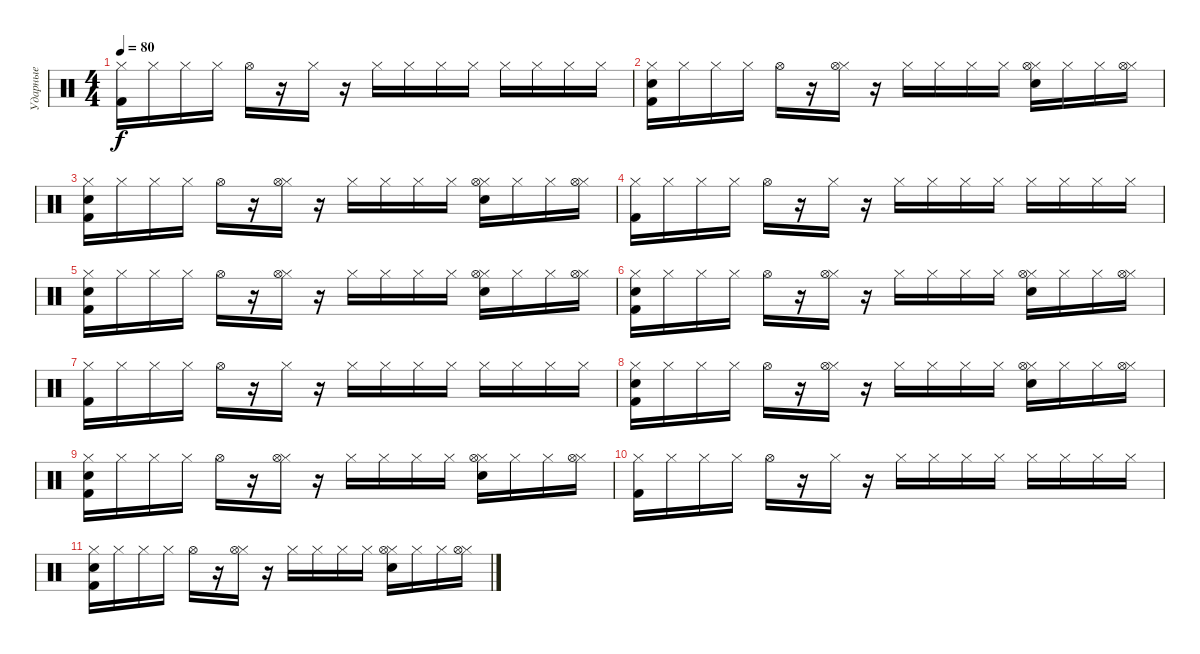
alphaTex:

\track ("Ударные" "Ударные") {instrument percussion}
\staff {score}
\articulation defaults
\ts (4 4)
\tempo 80
\clef neutral
\ks c
("Hi-Hat (closed)" "Kick (hit) 2").16{dy f} "Hi-Hat (closed)".16 "Hi-Hat (closed)".16 "Hi-Hat (closed)".16 "Hi-Hat (open)".16 r.16 "Hi-Hat (closed)".16 r.16 "Hi-Hat (closed)".16 "Hi-Hat (closed)".16 "Hi-Hat (closed)".16 "Hi-Hat (closed)".16 "Hi-Hat (closed)".16 "Hi-Hat (closed)".16 "Hi-Hat (closed)".16 "Hi-Hat (closed)".16 |
("Hi-Hat (closed)" "Kick (hit) 2" "Electric Snare (hit)").16 "Hi-Hat (closed)".16 "Hi-Hat (closed)".16 "Hi-Hat (closed)".16 "Hi-Hat (open)".16 r.16 ("Hi-Hat (closed)" "Hi-Hat (open)").16 r.16 "Hi-Hat (closed)".16 "Hi-Hat (closed)".16 "Hi-Hat (closed)".16 "Hi-Hat (closed)".16 ("Hi-Hat (closed)" "Electric Snare (hit)" "Hi-Hat (open)").16 "Hi-Hat (closed)".16 "Hi-Hat (closed)".16 ("Hi-Hat (closed)" "Hi-Hat (open)").16 |
("Hi-Hat (closed)" "Kick (hit) 2" "Electric Snare (hit)").16 "Hi-Hat (closed)".16 "Hi-Hat (closed)".16 "Hi-Hat (closed)".16 "Hi-Hat (open)".16 r.16 ("Hi-Hat (closed)" "Hi-Hat (open)").16 r.16 "Hi-Hat (closed)".16 "Hi-Hat (closed)".16 "Hi-Hat (closed)".16 "Hi-Hat (closed)".16 ("Hi-Hat (closed)" "Electric Snare (hit)" "Hi-Hat (open)").16 "Hi-Hat (closed)".16 "Hi-Hat (closed)".16 ("Hi-Hat (closed)" "Hi-Hat (open)").16 |
("Hi-Hat (closed)" "Kick (hit) 2").16 "Hi-Hat (closed)".16 "Hi-Hat (closed)".16 "Hi-Hat (closed)".16 "Hi-Hat (open)".16 r.16 "Hi-Hat (closed)".16 r.16 "Hi-Hat (closed)".16 "Hi-Hat (closed)".16 "Hi-Hat (closed)".16 "Hi-Hat (closed)".16 "Hi-Hat (closed)".16 "Hi-Hat (closed)".16 "Hi-Hat (closed)".16 "Hi-Hat (closed)".16 |
("Hi-Hat (closed)" "Kick (hit) 2" "Electric Snare (hit)").16 "Hi-Hat (closed)".16 "Hi-Hat (closed)".16 "Hi-Hat (closed)".16 "Hi-Hat (open)".16 r.16 ("Hi-Hat (closed)" "Hi-Hat (open)").16 r.16 "Hi-Hat (closed)".16 "Hi-Hat (closed)".16 "Hi-Hat (closed)".16 "Hi-Hat (closed)".16 ("Hi-Hat (closed)" "Electric Snare (hit)" "Hi-Hat (open)").16 "Hi-Hat (closed)".16 "Hi-Hat (closed)".16 ("Hi-Hat (closed)" "Hi-Hat (open)").16 |
("Hi-Hat (closed)" "Kick (hit) 2" "Electric Snare (hit)").16 "Hi-Hat (closed)".16 "Hi-Hat (closed)".16 "Hi-Hat (closed)".16 "Hi-Hat (open)".16 r.16 ("Hi-Hat (closed)" "Hi-Hat (open)").16 r.16 "Hi-Hat (closed)".16 "Hi-Hat (closed)".16 "Hi-Hat (closed)".16 "Hi-Hat (closed)".16 ("Hi-Hat (closed)" "Electric Snare (hit)" "Hi-Hat (open)").16 "Hi-Hat (closed)".16 "Hi-Hat (closed)".16 ("Hi-Hat (closed)" "Hi-Hat (open)").16 |
("Hi-Hat (closed)" "Kick (hit) 2").16 "Hi-Hat (closed)".16 "Hi-Hat (closed)".16 "Hi-Hat (closed)".16 "Hi-Hat (open)".16 r.16 "Hi-Hat (closed)".16 r.16 "Hi-Hat (closed)".16 "Hi-Hat (closed)".16 "Hi-Hat (closed)".16 "Hi-Hat (closed)".16 "Hi-Hat (closed)".16 "Hi-Hat (closed)".16 "Hi-Hat (closed)".16 "Hi-Hat (closed)".16 |
("Hi-Hat (closed)" "Kick (hit) 2" "Electric Snare (hit)").16 "Hi-Hat (closed)".16 "Hi-Hat (closed)".16 "Hi-Hat (closed)".16 "Hi-Hat (open)".16 r.16 ("Hi-Hat (closed)" "Hi-Hat (open)").16 r.16 "Hi-Hat (closed)".16 "Hi-Hat (closed)".16 "Hi-Hat (closed)".16 "Hi-Hat (closed)".16 ("Hi-Hat (closed)" "Electric Snare (hit)" "Hi-Hat (open)").16 "Hi-Hat (closed)".16 "Hi-Hat (closed)".16 ("Hi-Hat (closed)" "Hi-Hat (open)").16 |
("Hi-Hat (closed)" "Kick (hit) 2" "Electric Snare (hit)").16 "Hi-Hat (closed)".16 "Hi-Hat (closed)".16 "Hi-Hat (closed)".16 "Hi-Hat (open)".16 r.16 ("Hi-Hat (closed)" "Hi-Hat (open)").16 r.16 "Hi-Hat (closed)".16 "Hi-Hat (closed)".16 "Hi-Hat (closed)".16 "Hi-Hat (closed)".16 ("Hi-Hat (closed)" "Electric Snare (hit)" "Hi-Hat (open)").16 "Hi-Hat (closed)".16 "Hi-Hat (closed)".16 ("Hi-Hat (closed)" "Hi-Hat (open)").16 |
("Hi-Hat (closed)" "Kick (hit) 2").16 "Hi-Hat (closed)".16 "Hi-Hat (closed)".16 "Hi-Hat (closed)".16 "Hi-Hat (open)".16 r.16 "Hi-Hat (closed)".16 r.16 "Hi-Hat (closed)".16 "Hi-Hat (closed)".16 "Hi-Hat (closed)".16 "Hi-Hat (closed)".16 "Hi-Hat (closed)".16 "Hi-Hat (closed)".16 "Hi-Hat (closed)".16 "Hi-Hat (closed)".16 |
("Hi-Hat (closed)" "Kick (hit) 2" "Electric Snare (hit)").16 "Hi-Hat (closed)".16 "Hi-Hat (closed)".16 "Hi-Hat (closed)".16 "Hi-Hat (open)".16 r.16 ("Hi-Hat (closed)" "Hi-Hat (open)").16 r.16 "Hi-Hat (closed)".16 "Hi-Hat (closed)".16 "Hi-Hat (closed)".16 "Hi-Hat (closed)".16 ("Hi-Hat (closed)" "Electric Snare (hit)" "Hi-Hat (open)").16 "Hi-Hat (closed)".16 "Hi-Hat (closed)".16 ("Hi-Hat (closed)" "Hi-Hat (open)").16
